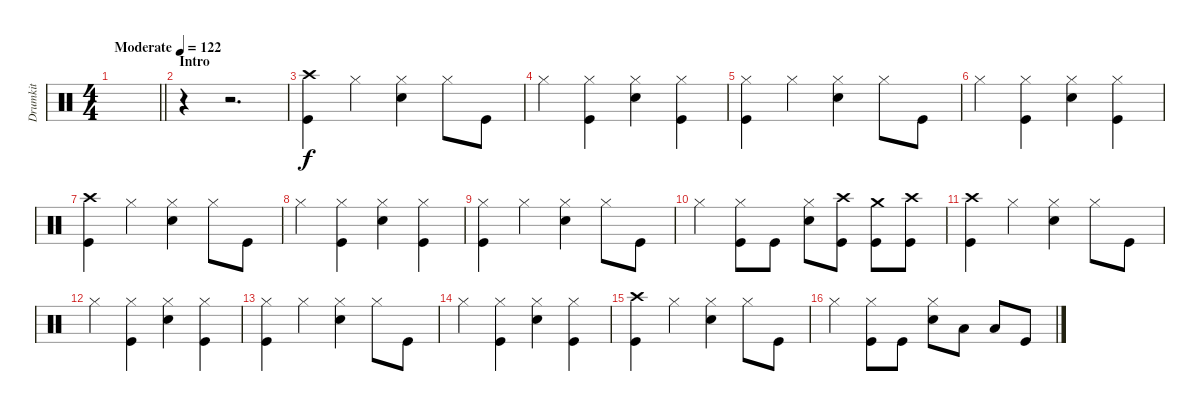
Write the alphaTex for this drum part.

\track ("Drumkit" "Drumkit") {instrument percussion}
\staff {score}
\articulation defaults
\ts (4 4)
\tempo (122 "Moderate")
\clef neutral
\barLineRight lightlight
\ks c
|
\section ("" "Intro")
r.4 r.2{d} |
("Kick (hit)" "Crash high (hit)").4 "Hi-Hat (closed)".4 ("Hi-Hat (closed)" "Snare (hit) 2").4 "Hi-Hat (closed)".8 "Kick (hit)".8 |
"Hi-Hat (closed)".4 ("Hi-Hat (closed)" "Kick (hit)").4 ("Hi-Hat (closed)" "Snare (hit) 2").4 ("Hi-Hat (closed)" "Kick (hit)").4 |
("Kick (hit)" "Hi-Hat (closed)").4 "Hi-Hat (closed)".4 ("Hi-Hat (closed)" "Snare (hit) 2").4 "Hi-Hat (closed)".8 "Kick (hit)".8 |
"Hi-Hat (closed)".4 ("Hi-Hat (closed)" "Kick (hit)").4 ("Hi-Hat (closed)" "Snare (hit) 2").4 ("Hi-Hat (closed)" "Kick (hit)").4 |
("Kick (hit)" "Crash high (hit)").4 "Hi-Hat (closed)".4 ("Hi-Hat (closed)" "Snare (hit) 2").4 "Hi-Hat (closed)".8 "Kick (hit)".8 |
"Hi-Hat (closed)".4 ("Hi-Hat (closed)" "Kick (hit)").4 ("Hi-Hat (closed)" "Snare (hit) 2").4 ("Hi-Hat (closed)" "Kick (hit)").4 |
("Kick (hit)" "Hi-Hat (closed)").4 "Hi-Hat (closed)".4 ("Hi-Hat (closed)" "Snare (hit) 2").4 "Hi-Hat (closed)".8 "Kick (hit)".8 |
"Hi-Hat (closed)".4 ("Hi-Hat (closed)" "Kick (hit)").8 "Kick (hit)".8 ("Hi-Hat (closed)" "Snare (hit) 2").8 ("Kick (hit)" "Crash high (hit)").8 ("Kick (hit)" "Crash medium (hit)").8 ("Kick (hit)" "Crash high (hit)").8 |
("Kick (hit)" "Crash high (hit)").4 "Hi-Hat (closed)".4 ("Hi-Hat (closed)" "Snare (hit) 2").4 "Hi-Hat (closed)".8 "Kick (hit)".8 |
"Hi-Hat (closed)".4 ("Hi-Hat (closed)" "Kick (hit)").4 ("Hi-Hat (closed)" "Snare (hit) 2").4 ("Hi-Hat (closed)" "Kick (hit)").4 |
("Kick (hit)" "Hi-Hat (closed)").4 "Hi-Hat (closed)".4 ("Hi-Hat (closed)" "Snare (hit) 2").4 "Hi-Hat (closed)".8 "Kick (hit)".8 |
"Hi-Hat (closed)".4 ("Hi-Hat (closed)" "Kick (hit)").4 ("Hi-Hat (closed)" "Snare (hit) 2").4 ("Hi-Hat (closed)" "Kick (hit)").4 |
("Kick (hit)" "Crash high (hit)").4 "Hi-Hat (closed)".4 ("Hi-Hat (closed)" "Snare (hit) 2").4 "Hi-Hat (closed)".8 "Kick (hit)".8 |
"Hi-Hat (closed)".4 ("Hi-Hat (closed)" "Kick (hit)").8 "Kick (hit)".8 ("Hi-Hat (closed)" "Snare (hit) 2").8 "Low Tom (hit)".8 "Low Tom (hit)".8 "Kick (hit)".8
